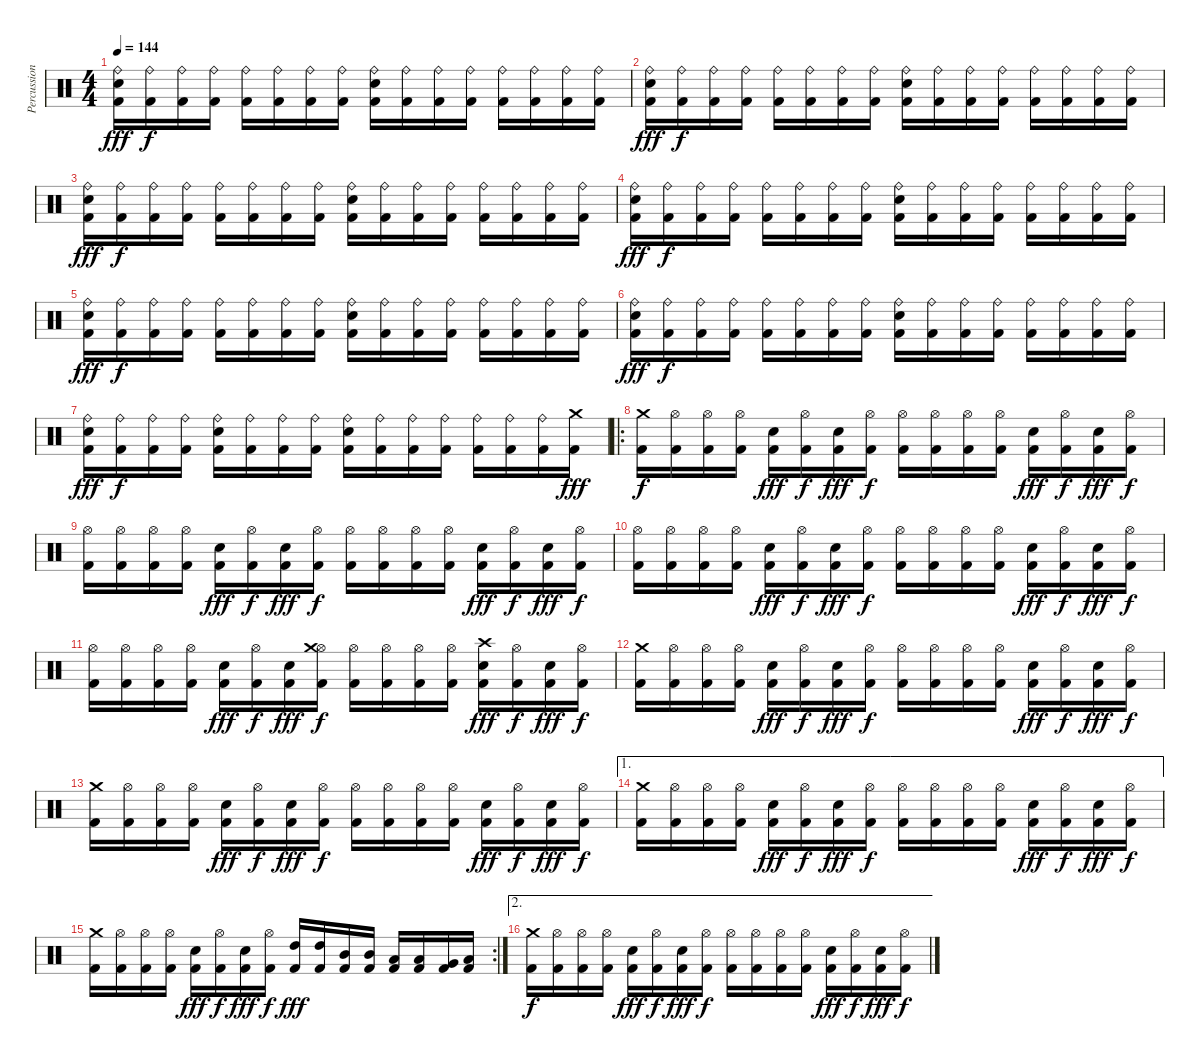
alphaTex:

\track ("Percussion -  Bard Faust" "Percussion") {instrument percussion}
\staff {score}
\articulation defaults
\ts (4 4)
\tempo 144
\clef neutral
\ks c
("Ride (bell)" "Electric Snare (hit)" "Kick (hit) 2").16{dy fff} ("Ride (bell)" "Kick (hit) 2").16{dy f} ("Ride (bell)" "Kick (hit) 2").16 ("Ride (bell)" "Kick (hit) 2").16 ("Ride (bell)" "Kick (hit) 2").16 ("Ride (bell)" "Kick (hit) 2").16 ("Ride (bell)" "Kick (hit) 2").16 ("Ride (bell)" "Kick (hit) 2").16 ("Ride (bell)" "Electric Snare (hit)" "Kick (hit) 2").16 ("Ride (bell)" "Kick (hit) 2").16 ("Ride (bell)" "Kick (hit) 2").16 ("Ride (bell)" "Kick (hit) 2").16 ("Ride (bell)" "Kick (hit) 2").16 ("Ride (bell)" "Kick (hit) 2").16 ("Ride (bell)" "Kick (hit) 2").16 ("Ride (bell)" "Kick (hit) 2").16 |
("Ride (bell)" "Electric Snare (hit)" "Kick (hit) 2").16{dy fff} ("Ride (bell)" "Kick (hit) 2").16{dy f} ("Ride (bell)" "Kick (hit) 2").16 ("Ride (bell)" "Kick (hit) 2").16 ("Ride (bell)" "Kick (hit) 2").16 ("Ride (bell)" "Kick (hit) 2").16 ("Ride (bell)" "Kick (hit) 2").16 ("Ride (bell)" "Kick (hit) 2").16 ("Ride (bell)" "Electric Snare (hit)" "Kick (hit) 2").16 ("Ride (bell)" "Kick (hit) 2").16 ("Ride (bell)" "Kick (hit) 2").16 ("Ride (bell)" "Kick (hit) 2").16 ("Ride (bell)" "Kick (hit) 2").16 ("Ride (bell)" "Kick (hit) 2").16 ("Ride (bell)" "Kick (hit) 2").16 ("Ride (bell)" "Kick (hit) 2").16 |
("Ride (bell)" "Electric Snare (hit)" "Kick (hit) 2").16{dy fff} ("Ride (bell)" "Kick (hit) 2").16{dy f} ("Ride (bell)" "Kick (hit) 2").16 ("Ride (bell)" "Kick (hit) 2").16 ("Ride (bell)" "Kick (hit) 2").16 ("Ride (bell)" "Kick (hit) 2").16 ("Ride (bell)" "Kick (hit) 2").16 ("Ride (bell)" "Kick (hit) 2").16 ("Ride (bell)" "Electric Snare (hit)" "Kick (hit) 2").16 ("Ride (bell)" "Kick (hit) 2").16 ("Ride (bell)" "Kick (hit) 2").16 ("Ride (bell)" "Kick (hit) 2").16 ("Ride (bell)" "Kick (hit) 2").16 ("Ride (bell)" "Kick (hit) 2").16 ("Ride (bell)" "Kick (hit) 2").16 ("Ride (bell)" "Kick (hit) 2").16 |
("Ride (bell)" "Electric Snare (hit)" "Kick (hit) 2").16{dy fff} ("Ride (bell)" "Kick (hit) 2").16{dy f} ("Ride (bell)" "Kick (hit) 2").16 ("Ride (bell)" "Kick (hit) 2").16 ("Ride (bell)" "Kick (hit) 2").16 ("Ride (bell)" "Kick (hit) 2").16 ("Ride (bell)" "Kick (hit) 2").16 ("Ride (bell)" "Kick (hit) 2").16 ("Ride (bell)" "Electric Snare (hit)" "Kick (hit) 2").16 ("Ride (bell)" "Kick (hit) 2").16 ("Ride (bell)" "Kick (hit) 2").16 ("Ride (bell)" "Kick (hit) 2").16 ("Ride (bell)" "Kick (hit) 2").16 ("Ride (bell)" "Kick (hit) 2").16 ("Ride (bell)" "Kick (hit) 2").16 ("Ride (bell)" "Kick (hit) 2").16 |
("Ride (bell)" "Electric Snare (hit)" "Kick (hit) 2").16{dy fff} ("Ride (bell)" "Kick (hit) 2").16{dy f} ("Ride (bell)" "Kick (hit) 2").16 ("Ride (bell)" "Kick (hit) 2").16 ("Ride (bell)" "Kick (hit) 2").16 ("Ride (bell)" "Kick (hit) 2").16 ("Ride (bell)" "Kick (hit) 2").16 ("Ride (bell)" "Kick (hit) 2").16 ("Ride (bell)" "Electric Snare (hit)" "Kick (hit) 2").16 ("Ride (bell)" "Kick (hit) 2").16 ("Ride (bell)" "Kick (hit) 2").16 ("Ride (bell)" "Kick (hit) 2").16 ("Ride (bell)" "Kick (hit) 2").16 ("Ride (bell)" "Kick (hit) 2").16 ("Ride (bell)" "Kick (hit) 2").16 ("Ride (bell)" "Kick (hit) 2").16 |
("Ride (bell)" "Electric Snare (hit)" "Kick (hit) 2").16{dy fff} ("Ride (bell)" "Kick (hit) 2").16{dy f} ("Ride (bell)" "Kick (hit) 2").16 ("Ride (bell)" "Kick (hit) 2").16 ("Ride (bell)" "Kick (hit) 2").16 ("Ride (bell)" "Kick (hit) 2").16 ("Ride (bell)" "Kick (hit) 2").16 ("Ride (bell)" "Kick (hit) 2").16 ("Ride (bell)" "Electric Snare (hit)" "Kick (hit) 2").16 ("Ride (bell)" "Kick (hit) 2").16 ("Ride (bell)" "Kick (hit) 2").16 ("Ride (bell)" "Kick (hit) 2").16 ("Ride (bell)" "Kick (hit) 2").16 ("Ride (bell)" "Kick (hit) 2").16 ("Ride (bell)" "Kick (hit) 2").16 ("Ride (bell)" "Kick (hit) 2").16 |
("Ride (bell)" "Electric Snare (hit)" "Kick (hit) 2").16{dy fff} ("Ride (bell)" "Kick (hit) 2").16{dy f} ("Ride (bell)" "Kick (hit) 2").16 ("Ride (bell)" "Kick (hit) 2").16 ("Ride (bell)" "Electric Snare (hit)" "Kick (hit) 2").16 ("Ride (bell)" "Kick (hit) 2").16 ("Ride (bell)" "Kick (hit) 2").16 ("Ride (bell)" "Kick (hit) 2").16 ("Ride (bell)" "Electric Snare (hit)" "Kick (hit) 2").16 ("Ride (bell)" "Kick (hit) 2").16 ("Ride (bell)" "Kick (hit) 2").16 ("Ride (bell)" "Kick (hit) 2").16 ("Ride (bell)" "Kick (hit) 2").16 ("Ride (bell)" "Kick (hit) 2").16 ("Ride (bell)" "Kick (hit) 2").16 ("Crash medium (hit)" "Kick (hit) 2").16{dy fff} |
\ro
("Crash medium (hit)" "Kick (hit) 2").16{dy f} ("Hi-Hat (open)" "Kick (hit) 2").16 ("Hi-Hat (open)" "Kick (hit) 2").16 ("Hi-Hat (open)" "Kick (hit) 2").16 ("Electric Snare (hit)" "Kick (hit) 2").16{dy fff} ("Hi-Hat (open)" "Kick (hit) 2").16{dy f} ("Electric Snare (hit)" "Kick (hit) 2").16{dy fff} ("Hi-Hat (open)" "Kick (hit) 2").16{dy f} ("Hi-Hat (open)" "Kick (hit) 2").16 ("Hi-Hat (open)" "Kick (hit) 2").16 ("Hi-Hat (open)" "Kick (hit) 2").16 ("Hi-Hat (open)" "Kick (hit) 2").16 ("Electric Snare (hit)" "Kick (hit) 2").16{dy fff} ("Hi-Hat (open)" "Kick (hit) 2").16{dy f} ("Electric Snare (hit)" "Kick (hit) 2").16{dy fff} ("Hi-Hat (open)" "Kick (hit) 2").16{dy f} |
("Hi-Hat (open)" "Kick (hit) 2").16 ("Hi-Hat (open)" "Kick (hit) 2").16 ("Hi-Hat (open)" "Kick (hit) 2").16 ("Hi-Hat (open)" "Kick (hit) 2").16 ("Electric Snare (hit)" "Kick (hit) 2").16{dy fff} ("Hi-Hat (open)" "Kick (hit) 2").16{dy f} ("Electric Snare (hit)" "Kick (hit) 2").16{dy fff} ("Hi-Hat (open)" "Kick (hit) 2").16{dy f} ("Hi-Hat (open)" "Kick (hit) 2").16 ("Hi-Hat (open)" "Kick (hit) 2").16 ("Hi-Hat (open)" "Kick (hit) 2").16 ("Hi-Hat (open)" "Kick (hit) 2").16 ("Electric Snare (hit)" "Kick (hit) 2").16{dy fff} ("Hi-Hat (open)" "Kick (hit) 2").16{dy f} ("Electric Snare (hit)" "Kick (hit) 2").16{dy fff} ("Hi-Hat (open)" "Kick (hit) 2").16{dy f} |
("Hi-Hat (open)" "Kick (hit) 2").16 ("Hi-Hat (open)" "Kick (hit) 2").16 ("Hi-Hat (open)" "Kick (hit) 2").16 ("Hi-Hat (open)" "Kick (hit) 2").16 ("Electric Snare (hit)" "Kick (hit) 2").16{dy fff} ("Hi-Hat (open)" "Kick (hit) 2").16{dy f} ("Electric Snare (hit)" "Kick (hit) 2").16{dy fff} ("Hi-Hat (open)" "Kick (hit) 2").16{dy f} ("Hi-Hat (open)" "Kick (hit) 2").16 ("Hi-Hat (open)" "Kick (hit) 2").16 ("Hi-Hat (open)" "Kick (hit) 2").16 ("Hi-Hat (open)" "Kick (hit) 2").16 ("Electric Snare (hit)" "Kick (hit) 2").16{dy fff} ("Hi-Hat (open)" "Kick (hit) 2").16{dy f} ("Electric Snare (hit)" "Kick (hit) 2").16{dy fff} ("Hi-Hat (open)" "Kick (hit) 2").16{dy f} |
("Hi-Hat (open)" "Kick (hit) 2").16 ("Hi-Hat (open)" "Kick (hit) 2").16 ("Hi-Hat (open)" "Kick (hit) 2").16 ("Hi-Hat (open)" "Kick (hit) 2").16 ("Electric Snare (hit)" "Kick (hit) 2").16{dy fff} ("Hi-Hat (open)" "Kick (hit) 2").16{dy f} ("Electric Snare (hit)" "Kick (hit) 2").16{dy fff} ("Hi-Hat (open)" "Crash medium (hit)" "Kick (hit) 2").16{dy f} ("Hi-Hat (open)" "Kick (hit) 2").16 ("Hi-Hat (open)" "Kick (hit) 2").16 ("Hi-Hat (open)" "Kick (hit) 2").16 ("Hi-Hat (open)" "Kick (hit) 2").16 ("Electric Snare (hit)" "Crash high (hit)" "Kick (hit) 2").16{dy fff} ("Hi-Hat (open)" "Kick (hit) 2").16{dy f} ("Electric Snare (hit)" "Kick (hit) 2").16{dy fff} ("Hi-Hat (open)" "Kick (hit) 2").16{dy f} |
("Crash medium (hit)" "Kick (hit) 2").16 ("Hi-Hat (open)" "Kick (hit) 2").16 ("Hi-Hat (open)" "Kick (hit) 2").16 ("Hi-Hat (open)" "Kick (hit) 2").16 ("Electric Snare (hit)" "Kick (hit) 2").16{dy fff} ("Hi-Hat (open)" "Kick (hit) 2").16{dy f} ("Electric Snare (hit)" "Kick (hit) 2").16{dy fff} ("Hi-Hat (open)" "Kick (hit) 2").16{dy f} ("Hi-Hat (open)" "Kick (hit) 2").16 ("Hi-Hat (open)" "Kick (hit) 2").16 ("Hi-Hat (open)" "Kick (hit) 2").16 ("Hi-Hat (open)" "Kick (hit) 2").16 ("Electric Snare (hit)" "Kick (hit) 2").16{dy fff} ("Hi-Hat (open)" "Kick (hit) 2").16{dy f} ("Electric Snare (hit)" "Kick (hit) 2").16{dy fff} ("Hi-Hat (open)" "Kick (hit) 2").16{dy f} |
("Crash medium (hit)" "Kick (hit) 2").16 ("Hi-Hat (open)" "Kick (hit) 2").16 ("Hi-Hat (open)" "Kick (hit) 2").16 ("Hi-Hat (open)" "Kick (hit) 2").16 ("Electric Snare (hit)" "Kick (hit) 2").16{dy fff} ("Hi-Hat (open)" "Kick (hit) 2").16{dy f} ("Electric Snare (hit)" "Kick (hit) 2").16{dy fff} ("Hi-Hat (open)" "Kick (hit) 2").16{dy f} ("Hi-Hat (open)" "Kick (hit) 2").16 ("Hi-Hat (open)" "Kick (hit) 2").16 ("Hi-Hat (open)" "Kick (hit) 2").16 ("Hi-Hat (open)" "Kick (hit) 2").16 ("Electric Snare (hit)" "Kick (hit) 2").16{dy fff} ("Hi-Hat (open)" "Kick (hit) 2").16{dy f} ("Electric Snare (hit)" "Kick (hit) 2").16{dy fff} ("Hi-Hat (open)" "Kick (hit) 2").16{dy f} |
\ae 1
("Crash medium (hit)" "Kick (hit) 2").16 ("Hi-Hat (open)" "Kick (hit) 2").16 ("Hi-Hat (open)" "Kick (hit) 2").16 ("Hi-Hat (open)" "Kick (hit) 2").16 ("Electric Snare (hit)" "Kick (hit) 2").16{dy fff} ("Hi-Hat (open)" "Kick (hit) 2").16{dy f} ("Electric Snare (hit)" "Kick (hit) 2").16{dy fff} ("Hi-Hat (open)" "Kick (hit) 2").16{dy f} ("Hi-Hat (open)" "Kick (hit) 2").16 ("Hi-Hat (open)" "Kick (hit) 2").16 ("Hi-Hat (open)" "Kick (hit) 2").16 ("Hi-Hat (open)" "Kick (hit) 2").16 ("Electric Snare (hit)" "Kick (hit) 2").16{dy fff} ("Hi-Hat (open)" "Kick (hit) 2").16{dy f} ("Electric Snare (hit)" "Kick (hit) 2").16{dy fff} ("Hi-Hat (open)" "Kick (hit) 2").16{dy f} |
\rc 2
("Crash medium (hit)" "Kick (hit) 2").16 ("Hi-Hat (open)" "Kick (hit) 2").16 ("Hi-Hat (open)" "Kick (hit) 2").16 ("Hi-Hat (open)" "Kick (hit) 2").16 ("Electric Snare (hit)" "Kick (hit) 2").16{dy fff} ("Hi-Hat (open)" "Kick (hit) 2").16{dy f} ("Electric Snare (hit)" "Kick (hit) 2").16{dy fff} ("Hi-Hat (open)" "Kick (hit) 2").16{dy f} ("High Tom (hit)" "Kick (hit) 2").16{dy fff} ("High Tom (hit)" "Kick (hit) 2").16 ("Mid Tom (hit)" "Kick (hit) 2").16 ("Mid Tom (hit)" "Kick (hit) 2").16 ("Low Tom (hit)" "Kick (hit) 2").16 ("Low Tom (hit)" "Kick (hit) 2").16 ("Very Low Tom (hit)" "Kick (hit) 2").16 ("Low Floor Tom (hit)" "Kick (hit) 2").16 |
\ae 2
("Crash medium (hit)" "Kick (hit) 2").16{dy f} ("Hi-Hat (open)" "Kick (hit) 2").16 ("Hi-Hat (open)" "Kick (hit) 2").16 ("Hi-Hat (open)" "Kick (hit) 2").16 ("Electric Snare (hit)" "Kick (hit) 2").16{dy fff} ("Hi-Hat (open)" "Kick (hit) 2").16{dy f} ("Electric Snare (hit)" "Kick (hit) 2").16{dy fff} ("Hi-Hat (open)" "Kick (hit) 2").16{dy f} ("Hi-Hat (open)" "Kick (hit) 2").16 ("Hi-Hat (open)" "Kick (hit) 2").16 ("Hi-Hat (open)" "Kick (hit) 2").16 ("Hi-Hat (open)" "Kick (hit) 2").16 ("Electric Snare (hit)" "Kick (hit) 2").16{dy fff} ("Hi-Hat (open)" "Kick (hit) 2").16{dy f} ("Electric Snare (hit)" "Kick (hit) 2").16{dy fff} ("Hi-Hat (open)" "Kick (hit) 2").16{dy f}
